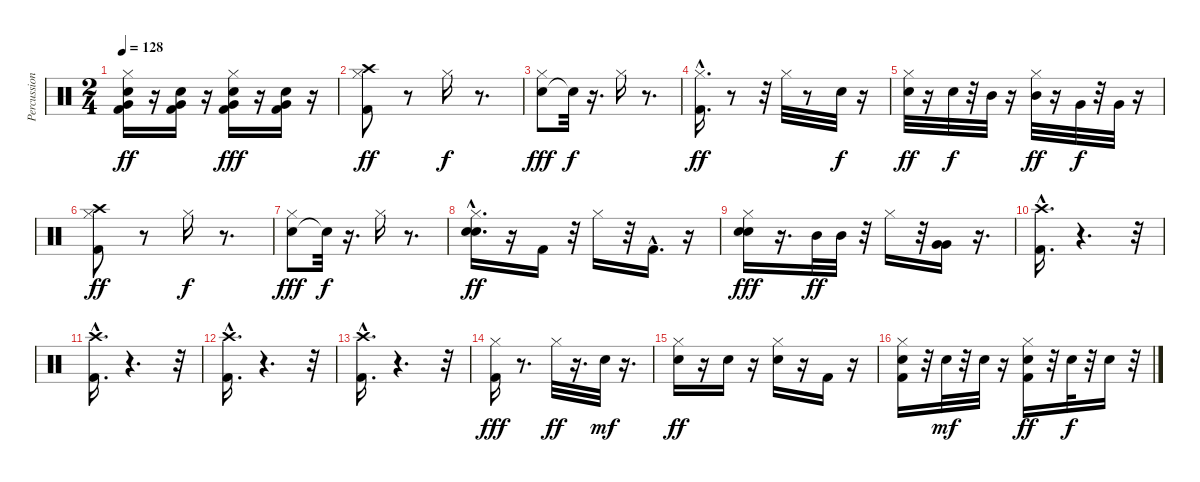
\track ("Percussion" "Percussion") {instrument percussion}
\staff {score}
\articulation defaults
\ts (2 4)
\tempo 128
\clef neutral
\ks c
("Kick (hit) 2" "Electric Snare (hit)" "Very Low Tom (hit)" "Hi-Hat (closed)").16{dy ff} r.16 ("Kick (hit) 2" "Very Low Tom (hit)" "Electric Snare (hit)").16 r.16 ("Kick (hit) 2" "Very Low Tom (hit)" "Electric Snare (hit)" "Hi-Hat (closed)").16{dy fff} r.16 ("Kick (hit) 2" "Very Low Tom (hit)" "Electric Snare (hit)").16 r.16 |
("Crash high (hit)" "Kick (hit) 2" "Hi-Hat (closed)").8{dy ff} r.8 "Hi-Hat (closed)".16{dy f} r.8{d} |
("Electric Snare (hit)" "Hi-Hat (closed)").8{dy fff} "Snare (hit)"{t}.32{dy f} r.16{d} "Hi-Hat (closed)".16 r.8{d} |
("Kick (hit) 2"{hac} "Hi-Hat (closed)").16{d dy ff} r.8 r.32 "Hi-Hat (closed)".32 r.8 "Electric Snare (hit)".32{dy f} r.16 |
("Electric Snare (hit)" "Hi-Hat (closed)").32{dy ff} r.16 "Electric Snare (hit)".32{dy f} r.32 "Mid Tom (hit)".32 r.16 ("Hi-Hat (closed)" "Mid Tom (hit)").32{dy ff} r.16 "Very Low Tom (hit)".32{dy f} r.32 "Very Low Tom (hit)".32 r.16 |
("Crash high (hit)" "Kick (hit) 2" "Hi-Hat (closed)").8{dy ff} r.8 "Hi-Hat (closed)".16{dy f} r.8{d} |
("Electric Snare (hit)" "Hi-Hat (closed)").8{dy fff} "Snare (hit)"{t}.32{dy f} r.16{d} "Hi-Hat (closed)".16 r.8{d} |
("Hi-Hat (closed)"{hac} "Electric Snare (hit)" "Electric Snare (hit)").16{d dy ff} r.16 "Kick (hit) 2".16 r.32 "Hi-Hat (closed)".16 r.32 "Kick (hit) 2"{hac}.16{d} r.16 |
("Hi-Hat (closed)" "Electric Snare (hit)" "Electric Snare (hit)").16{dy fff} r.16{d} "Mid Tom (hit)".32{dy ff} "Mid Tom (hit)".32 r.32 "Hi-Hat (closed)".16 r.32 ("Very Low Tom (hit)" "Very Low Tom (hit)").16 r.16{d} |
("Crash high (hit)" "Kick (hit) 2"{hac}).16{d} r.4{d} r.32 |
("Crash high (hit)" "Kick (hit) 2"{hac}).16{d} r.4{d} r.32 |
("Crash high (hit)" "Kick (hit) 2"{hac}).16{d} r.4{d} r.32 |
("Crash high (hit)" "Kick (hit) 2"{hac}).16{d} r.4{d} r.32 |
("Kick (hit) 2" "Hi-Hat (closed)").16{dy fff} r.8{d} "Hi-Hat (closed)".32{dy ff} r.16{d} "Electric Snare (hit)".32{dy mf} r.16{d} |
("Electric Snare (hit)" "Hi-Hat (closed)").16{dy ff} r.16 "Electric Snare (hit)".16 r.16 ("Electric Snare (hit)" "Hi-Hat (closed)").16 r.16 "Kick (hit) 2".16 r.16 |
("Electric Snare (hit)" "Hi-Hat (closed)" "Kick (hit) 2").16 r.32 "Electric Snare (hit)".32{dy mf} r.32 "Electric Snare (hit)".32 r.16 ("Hi-Hat (closed)" "Electric Snare (hit)" "Kick (hit) 2").16{dy ff} r.32 "Electric Snare (hit)".32{dy f} r.32 "Electric Snare (hit)".16 r.32
